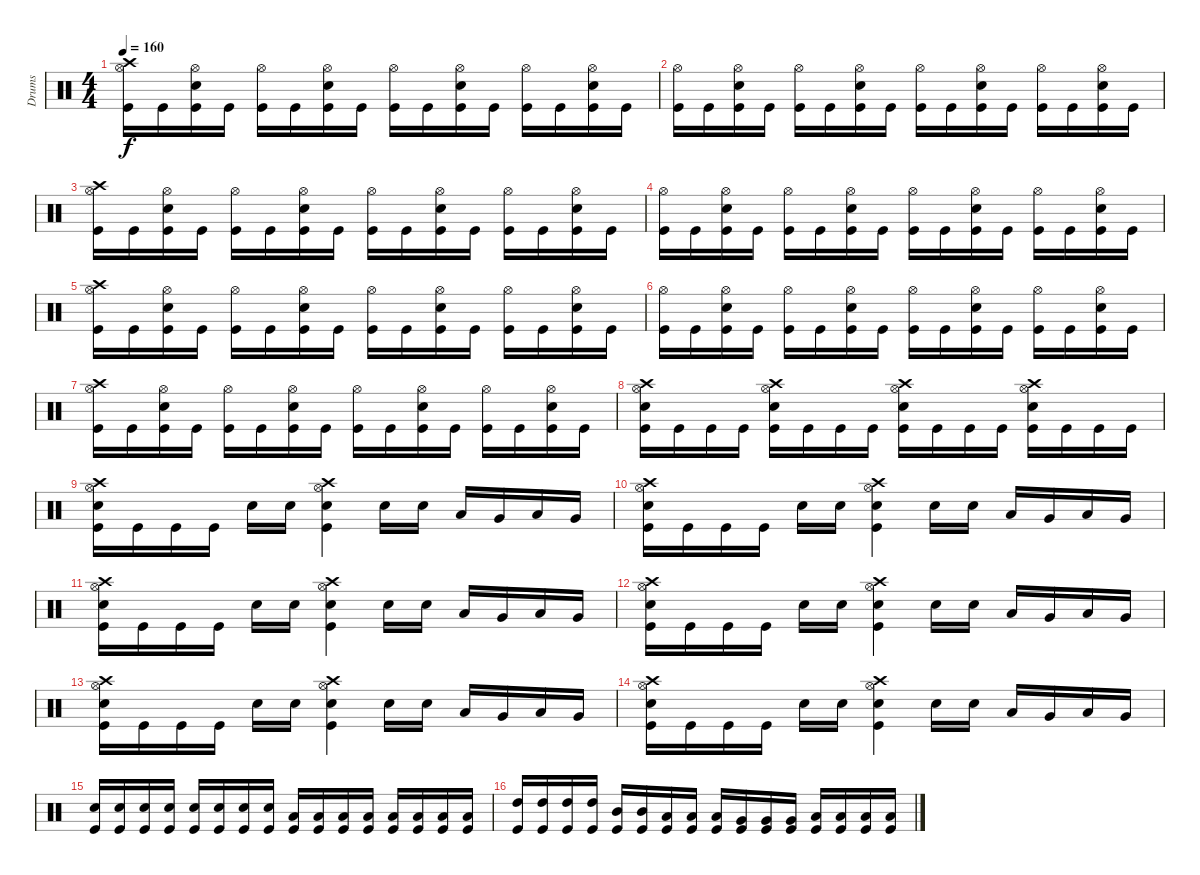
\track ("Drums" "Drums") {instrument percussion}
\staff {score}
\articulation defaults
\ts (4 4)
\tempo 160
\clef neutral
\ks c
("Crash high (hit)" "Hi-Hat (open)" "Kick (hit)").16{dy f} "Kick (hit)".16 ("Hi-Hat (open)" "Electric Snare (hit)" "Kick (hit)").16 "Kick (hit)".16 ("Hi-Hat (open)" "Kick (hit)").16 "Kick (hit)".16 ("Hi-Hat (open)" "Electric Snare (hit)" "Kick (hit)").16 "Kick (hit)".16 ("Hi-Hat (open)" "Kick (hit)").16 "Kick (hit)".16 ("Hi-Hat (open)" "Electric Snare (hit)" "Kick (hit)").16 "Kick (hit)".16 ("Hi-Hat (open)" "Kick (hit)").16 "Kick (hit)".16 ("Hi-Hat (open)" "Electric Snare (hit)" "Kick (hit)").16 "Kick (hit)".16 |
("Hi-Hat (open)" "Kick (hit)").16 "Kick (hit)".16 ("Hi-Hat (open)" "Electric Snare (hit)" "Kick (hit)").16 "Kick (hit)".16 ("Hi-Hat (open)" "Kick (hit)").16 "Kick (hit)".16 ("Hi-Hat (open)" "Electric Snare (hit)" "Kick (hit)").16 "Kick (hit)".16 ("Hi-Hat (open)" "Kick (hit)").16 "Kick (hit)".16 ("Hi-Hat (open)" "Electric Snare (hit)" "Kick (hit)").16 "Kick (hit)".16 ("Hi-Hat (open)" "Kick (hit)").16 "Kick (hit)".16 ("Hi-Hat (open)" "Electric Snare (hit)" "Kick (hit)").16 "Kick (hit)".16 |
("Crash high (hit)" "Hi-Hat (open)" "Kick (hit)").16 "Kick (hit)".16 ("Hi-Hat (open)" "Electric Snare (hit)" "Kick (hit)").16 "Kick (hit)".16 ("Hi-Hat (open)" "Kick (hit)").16 "Kick (hit)".16 ("Hi-Hat (open)" "Electric Snare (hit)" "Kick (hit)").16 "Kick (hit)".16 ("Hi-Hat (open)" "Kick (hit)").16 "Kick (hit)".16 ("Hi-Hat (open)" "Electric Snare (hit)" "Kick (hit)").16 "Kick (hit)".16 ("Hi-Hat (open)" "Kick (hit)").16 "Kick (hit)".16 ("Hi-Hat (open)" "Electric Snare (hit)" "Kick (hit)").16 "Kick (hit)".16 |
("Hi-Hat (open)" "Kick (hit)").16 "Kick (hit)".16 ("Hi-Hat (open)" "Electric Snare (hit)" "Kick (hit)").16 "Kick (hit)".16 ("Hi-Hat (open)" "Kick (hit)").16 "Kick (hit)".16 ("Hi-Hat (open)" "Electric Snare (hit)" "Kick (hit)").16 "Kick (hit)".16 ("Hi-Hat (open)" "Kick (hit)").16 "Kick (hit)".16 ("Hi-Hat (open)" "Electric Snare (hit)" "Kick (hit)").16 "Kick (hit)".16 ("Hi-Hat (open)" "Kick (hit)").16 "Kick (hit)".16 ("Hi-Hat (open)" "Electric Snare (hit)" "Kick (hit)").16 "Kick (hit)".16 |
("Crash high (hit)" "Hi-Hat (open)" "Kick (hit)").16 "Kick (hit)".16 ("Hi-Hat (open)" "Electric Snare (hit)" "Kick (hit)").16 "Kick (hit)".16 ("Hi-Hat (open)" "Kick (hit)").16 "Kick (hit)".16 ("Hi-Hat (open)" "Electric Snare (hit)" "Kick (hit)").16 "Kick (hit)".16 ("Hi-Hat (open)" "Kick (hit)").16 "Kick (hit)".16 ("Hi-Hat (open)" "Electric Snare (hit)" "Kick (hit)").16 "Kick (hit)".16 ("Hi-Hat (open)" "Kick (hit)").16 "Kick (hit)".16 ("Hi-Hat (open)" "Electric Snare (hit)" "Kick (hit)").16 "Kick (hit)".16 |
("Hi-Hat (open)" "Kick (hit)").16 "Kick (hit)".16 ("Hi-Hat (open)" "Electric Snare (hit)" "Kick (hit)").16 "Kick (hit)".16 ("Hi-Hat (open)" "Kick (hit)").16 "Kick (hit)".16 ("Hi-Hat (open)" "Electric Snare (hit)" "Kick (hit)").16 "Kick (hit)".16 ("Hi-Hat (open)" "Kick (hit)").16 "Kick (hit)".16 ("Hi-Hat (open)" "Electric Snare (hit)" "Kick (hit)").16 "Kick (hit)".16 ("Hi-Hat (open)" "Kick (hit)").16 "Kick (hit)".16 ("Hi-Hat (open)" "Electric Snare (hit)" "Kick (hit)").16 "Kick (hit)".16 |
("Crash high (hit)" "Hi-Hat (open)" "Kick (hit)").16 "Kick (hit)".16 ("Hi-Hat (open)" "Electric Snare (hit)" "Kick (hit)").16 "Kick (hit)".16 ("Hi-Hat (open)" "Kick (hit)").16 "Kick (hit)".16 ("Hi-Hat (open)" "Electric Snare (hit)" "Kick (hit)").16 "Kick (hit)".16 ("Hi-Hat (open)" "Kick (hit)").16 "Kick (hit)".16 ("Hi-Hat (open)" "Electric Snare (hit)" "Kick (hit)").16 "Kick (hit)".16 ("Hi-Hat (open)" "Kick (hit)").16 "Kick (hit)".16 ("Hi-Hat (open)" "Electric Snare (hit)" "Kick (hit)").16 "Kick (hit)".16 |
("Electric Snare (hit)" "Crash high (hit)" "Hi-Hat (open)" "Kick (hit)").16 "Kick (hit)".16 "Kick (hit)".16 "Kick (hit)".16 ("Electric Snare (hit)" "Crash high (hit)" "Hi-Hat (open)" "Kick (hit)").16 "Kick (hit)".16 "Kick (hit)".16 "Kick (hit)".16 ("Electric Snare (hit)" "Crash high (hit)" "Hi-Hat (open)" "Kick (hit)").16 "Kick (hit)".16 "Kick (hit)".16 "Kick (hit)".16 ("Crash high (hit)" "Electric Snare (hit)" "Hi-Hat (open)" "Kick (hit)").16 "Kick (hit)".16 "Kick (hit)".16 "Kick (hit)".16 |
("Electric Snare (hit)" "Crash high (hit)" "Hi-Hat (open)" "Kick (hit)").16 "Kick (hit)".16 "Kick (hit)".16 "Kick (hit)".16 "Electric Snare (hit)".16 "Electric Snare (hit)".16 ("Electric Snare (hit)" "Crash high (hit)" "Hi-Hat (open)" "Kick (hit)").4 "Electric Snare (hit)".16 "Electric Snare (hit)".16 "Low Tom (hit)".16 "Very Low Tom (hit)".16 "Low Floor Tom (hit)".16 "Very Low Tom (hit)".16 |
("Electric Snare (hit)" "Crash high (hit)" "Hi-Hat (open)" "Kick (hit)").16 "Kick (hit)".16 "Kick (hit)".16 "Kick (hit)".16 "Electric Snare (hit)".16 "Electric Snare (hit)".16 ("Electric Snare (hit)" "Crash high (hit)" "Hi-Hat (open)" "Kick (hit)").4 "Electric Snare (hit)".16 "Electric Snare (hit)".16 "Low Tom (hit)".16 "Very Low Tom (hit)".16 "Low Floor Tom (hit)".16 "Very Low Tom (hit)".16 |
("Electric Snare (hit)" "Crash high (hit)" "Hi-Hat (open)" "Kick (hit)").16 "Kick (hit)".16 "Kick (hit)".16 "Kick (hit)".16 "Electric Snare (hit)".16 "Electric Snare (hit)".16 ("Electric Snare (hit)" "Crash high (hit)" "Hi-Hat (open)" "Kick (hit)").4 "Electric Snare (hit)".16 "Electric Snare (hit)".16 "Low Tom (hit)".16 "Very Low Tom (hit)".16 "Low Floor Tom (hit)".16 "Very Low Tom (hit)".16 |
("Electric Snare (hit)" "Crash high (hit)" "Hi-Hat (open)" "Kick (hit)").16 "Kick (hit)".16 "Kick (hit)".16 "Kick (hit)".16 "Electric Snare (hit)".16 "Electric Snare (hit)".16 ("Electric Snare (hit)" "Crash high (hit)" "Hi-Hat (open)" "Kick (hit)").4 "Electric Snare (hit)".16 "Electric Snare (hit)".16 "Low Tom (hit)".16 "Very Low Tom (hit)".16 "Low Floor Tom (hit)".16 "Very Low Tom (hit)".16 |
("Electric Snare (hit)" "Crash high (hit)" "Hi-Hat (open)" "Kick (hit)").16 "Kick (hit)".16 "Kick (hit)".16 "Kick (hit)".16 "Electric Snare (hit)".16 "Electric Snare (hit)".16 ("Electric Snare (hit)" "Crash high (hit)" "Hi-Hat (open)" "Kick (hit)").4 "Electric Snare (hit)".16 "Electric Snare (hit)".16 "Low Tom (hit)".16 "Very Low Tom (hit)".16 "Low Floor Tom (hit)".16 "Very Low Tom (hit)".16 |
("Electric Snare (hit)" "Crash high (hit)" "Hi-Hat (open)" "Kick (hit)").16 "Kick (hit)".16 "Kick (hit)".16 "Kick (hit)".16 "Electric Snare (hit)".16 "Electric Snare (hit)".16 ("Electric Snare (hit)" "Crash high (hit)" "Hi-Hat (open)" "Kick (hit)").4 "Electric Snare (hit)".16 "Electric Snare (hit)".16 "Low Tom (hit)".16 "Very Low Tom (hit)".16 "Low Floor Tom (hit)".16 "Very Low Tom (hit)".16 |
("Electric Snare (hit)" "Kick (hit)").16 ("Electric Snare (hit)" "Kick (hit)").16 ("Electric Snare (hit)" "Kick (hit)").16 ("Electric Snare (hit)" "Kick (hit)").16 ("Electric Snare (hit)" "Kick (hit)").16 ("Electric Snare (hit)" "Kick (hit)").16 ("Electric Snare (hit)" "Kick (hit)").16 ("Electric Snare (hit)" "Kick (hit)").16 ("Low Tom (hit)" "Kick (hit)").16 ("Low Tom (hit)" "Kick (hit)").16 ("Low Tom (hit)" "Kick (hit)").16 ("Low Tom (hit)" "Kick (hit)").16 ("Low Tom (hit)" "Kick (hit)").16 ("Low Tom (hit)" "Kick (hit)").16 ("Low Tom (hit)" "Kick (hit)").16 ("Low Tom (hit)" "Kick (hit)").16 |
("Kick (hit)" "High Tom (hit)").16 ("Kick (hit)" "High Tom (hit)").16 ("Kick (hit)" "High Tom (hit)").16 ("Kick (hit)" "High Tom (hit)").16 ("Kick (hit)" "Mid Tom (hit)").16 ("Kick (hit)" "Mid Tom (hit)").16 ("Kick (hit)" "Low Tom (hit)").16 ("Kick (hit)" "Low Tom (hit)").16 ("Kick (hit)" "Low Tom (hit)").16 ("Kick (hit)" "Very Low Tom (hit)").16 ("Kick (hit)" "Very Low Tom (hit)").16 ("Kick (hit)" "Very Low Tom (hit)").16 ("Kick (hit)" "Low Floor Tom (hit)").16 ("Kick (hit)" "Low Floor Tom (hit)").16 ("Kick (hit)" "Low Floor Tom (hit)").16 ("Kick (hit)" "Low Floor Tom (hit)").16
